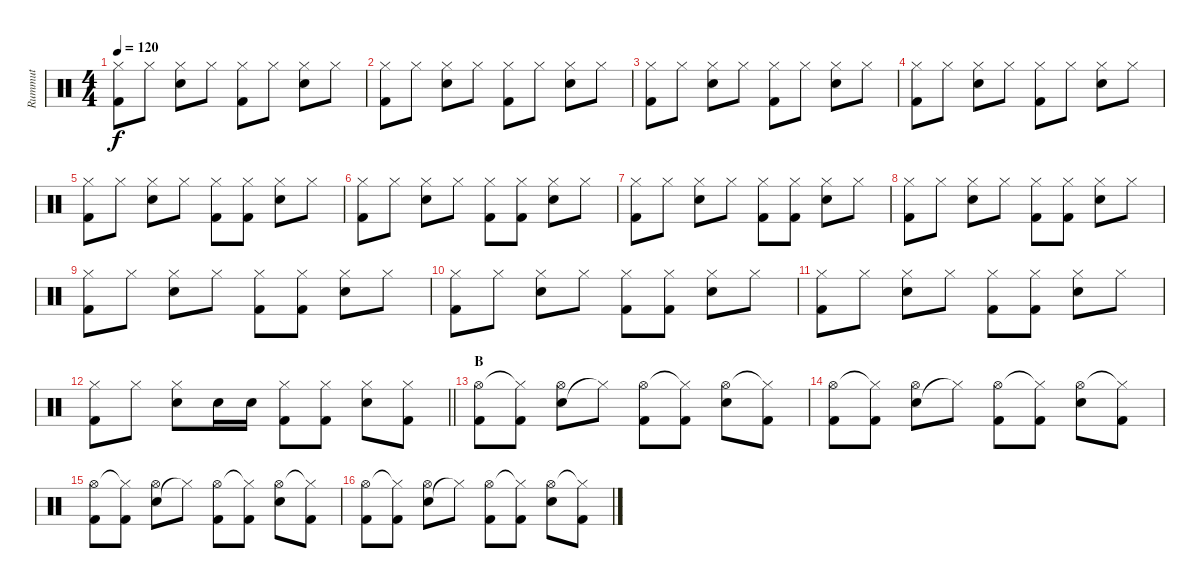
\track ("Rummut" "Rummut") {instrument percussion}
\staff {score}
\articulation defaults
\ts (4 4)
\tempo 120
\clef neutral
\ks c
("Kick (hit) 2" "Hi-Hat (closed)").8{dy f} "Hi-Hat (closed)".8 ("Electric Snare (hit)" "Hi-Hat (closed)").8 "Hi-Hat (closed)".8 ("Kick (hit) 2" "Hi-Hat (closed)").8 "Hi-Hat (closed)".8 ("Electric Snare (hit)" "Hi-Hat (closed)").8 "Hi-Hat (closed)".8 |
("Kick (hit) 2" "Hi-Hat (closed)").8 "Hi-Hat (closed)".8 ("Electric Snare (hit)" "Hi-Hat (closed)").8 "Hi-Hat (closed)".8 ("Kick (hit) 2" "Hi-Hat (closed)").8 "Hi-Hat (closed)".8 ("Electric Snare (hit)" "Hi-Hat (closed)").8 "Hi-Hat (closed)".8 |
("Kick (hit) 2" "Hi-Hat (closed)").8 "Hi-Hat (closed)".8 ("Electric Snare (hit)" "Hi-Hat (closed)").8 "Hi-Hat (closed)".8 ("Kick (hit) 2" "Hi-Hat (closed)").8 "Hi-Hat (closed)".8 ("Electric Snare (hit)" "Hi-Hat (closed)").8 "Hi-Hat (closed)".8 |
("Kick (hit) 2" "Hi-Hat (closed)").8 "Hi-Hat (closed)".8 ("Electric Snare (hit)" "Hi-Hat (closed)").8 "Hi-Hat (closed)".8 ("Kick (hit) 2" "Hi-Hat (closed)").8 "Hi-Hat (closed)".8 ("Electric Snare (hit)" "Hi-Hat (closed)").8 "Hi-Hat (closed)".8 |
("Kick (hit) 2" "Hi-Hat (closed)").8 "Hi-Hat (closed)".8 ("Electric Snare (hit)" "Hi-Hat (closed)").8 "Hi-Hat (closed)".8 ("Kick (hit) 2" "Hi-Hat (closed)").8 ("Kick (hit) 2" "Hi-Hat (closed)").8 ("Electric Snare (hit)" "Hi-Hat (closed)").8 "Hi-Hat (closed)".8 |
("Kick (hit) 2" "Hi-Hat (closed)").8 "Hi-Hat (closed)".8 ("Electric Snare (hit)" "Hi-Hat (closed)").8 "Hi-Hat (closed)".8 ("Kick (hit) 2" "Hi-Hat (closed)").8 ("Kick (hit) 2" "Hi-Hat (closed)").8 ("Electric Snare (hit)" "Hi-Hat (closed)").8 "Hi-Hat (closed)".8 |
("Kick (hit) 2" "Hi-Hat (closed)").8 "Hi-Hat (closed)".8 ("Electric Snare (hit)" "Hi-Hat (closed)").8 "Hi-Hat (closed)".8 ("Kick (hit) 2" "Hi-Hat (closed)").8 ("Kick (hit) 2" "Hi-Hat (closed)").8 ("Electric Snare (hit)" "Hi-Hat (closed)").8 "Hi-Hat (closed)".8 |
("Kick (hit) 2" "Hi-Hat (closed)").8 "Hi-Hat (closed)".8 ("Electric Snare (hit)" "Hi-Hat (closed)").8 "Hi-Hat (closed)".8 ("Kick (hit) 2" "Hi-Hat (closed)").8 ("Kick (hit) 2" "Hi-Hat (closed)").8 ("Electric Snare (hit)" "Hi-Hat (closed)").8 "Hi-Hat (closed)".8 |
("Kick (hit) 2" "Hi-Hat (closed)").8 "Hi-Hat (closed)".8 ("Electric Snare (hit)" "Hi-Hat (closed)").8 "Hi-Hat (closed)".8 ("Kick (hit) 2" "Hi-Hat (closed)").8 ("Kick (hit) 2" "Hi-Hat (closed)").8 ("Electric Snare (hit)" "Hi-Hat (closed)").8 "Hi-Hat (closed)".8 |
("Kick (hit) 2" "Hi-Hat (closed)").8 "Hi-Hat (closed)".8 ("Electric Snare (hit)" "Hi-Hat (closed)").8 "Hi-Hat (closed)".8 ("Kick (hit) 2" "Hi-Hat (closed)").8 ("Kick (hit) 2" "Hi-Hat (closed)").8 ("Electric Snare (hit)" "Hi-Hat (closed)").8 "Hi-Hat (closed)".8 |
("Kick (hit) 2" "Hi-Hat (closed)").8 "Hi-Hat (closed)".8 ("Electric Snare (hit)" "Hi-Hat (closed)").8 "Hi-Hat (closed)".8 ("Kick (hit) 2" "Hi-Hat (closed)").8 ("Kick (hit) 2" "Hi-Hat (closed)").8 ("Electric Snare (hit)" "Hi-Hat (closed)").8 "Hi-Hat (closed)".8 |
\barLineRight lightlight
("Kick (hit) 2" "Hi-Hat (closed)").8 "Hi-Hat (closed)".8 ("Electric Snare (hit)" "Hi-Hat (closed)").8 "Electric Snare (hit)".16 "Electric Snare (hit)".16 ("Kick (hit) 2" "Hi-Hat (closed)").8 ("Kick (hit) 2" "Hi-Hat (closed)").8 ("Electric Snare (hit)" "Hi-Hat (closed)").8 ("Kick (hit) 2" "Hi-Hat (closed)").8 |
\section ("" "B")
("Kick (hit) 2" "Hi-Hat (open)").8 ("Kick (hit) 2" "Hi-Hat (closed)"{t}).8 ("Electric Snare (hit)" "Hi-Hat (open)").8 "Hi-Hat (closed)"{t}.8 ("Kick (hit) 2" "Hi-Hat (open)").8 ("Kick (hit) 2" "Hi-Hat (closed)"{t}).8 ("Electric Snare (hit)" "Hi-Hat (open)").8 ("Kick (hit) 2" "Hi-Hat (closed)"{t}).8 |
("Kick (hit) 2" "Hi-Hat (open)").8 ("Kick (hit) 2" "Hi-Hat (closed)"{t}).8 ("Electric Snare (hit)" "Hi-Hat (open)").8 "Hi-Hat (closed)"{t}.8 ("Kick (hit) 2" "Hi-Hat (open)").8 ("Kick (hit) 2" "Hi-Hat (closed)"{t}).8 ("Electric Snare (hit)" "Hi-Hat (open)").8 ("Kick (hit) 2" "Hi-Hat (closed)"{t}).8 |
("Kick (hit) 2" "Hi-Hat (open)").8 ("Kick (hit) 2" "Hi-Hat (closed)"{t}).8 ("Electric Snare (hit)" "Hi-Hat (open)").8 "Hi-Hat (closed)"{t}.8 ("Kick (hit) 2" "Hi-Hat (open)").8 ("Kick (hit) 2" "Hi-Hat (closed)"{t}).8 ("Electric Snare (hit)" "Hi-Hat (open)").8 ("Kick (hit) 2" "Hi-Hat (closed)"{t}).8 |
("Kick (hit) 2" "Hi-Hat (open)").8 ("Kick (hit) 2" "Hi-Hat (closed)"{t}).8 ("Electric Snare (hit)" "Hi-Hat (open)").8 "Hi-Hat (closed)"{t}.8 ("Kick (hit) 2" "Hi-Hat (open)").8 ("Kick (hit) 2" "Hi-Hat (closed)"{t}).8 ("Electric Snare (hit)" "Hi-Hat (open)").8 ("Kick (hit) 2" "Hi-Hat (closed)"{t}).8
